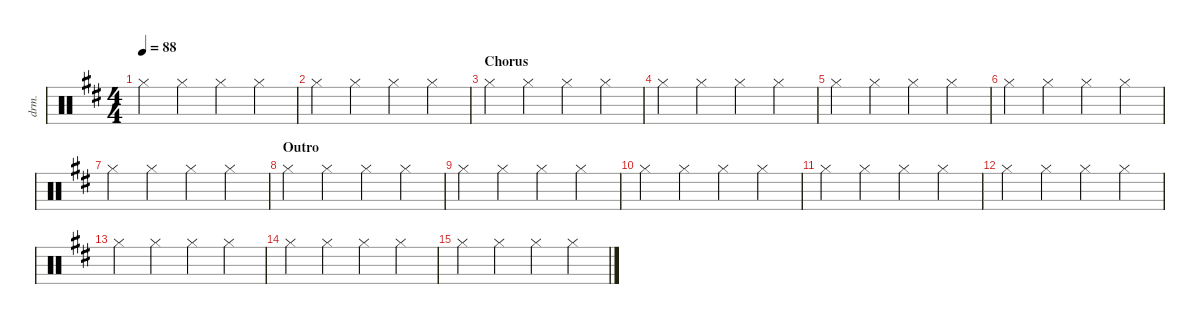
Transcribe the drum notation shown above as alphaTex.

\defaultSystemsLayout 4
\hideDynamics
\bracketExtendMode nobrackets
\otherSystemsTrackNameOrientation horizontal
\track ("Drumkit" "drm.") {instrument percussion}
\staff {score}
\articulation defaults
\ts (4 4)
\tempo 88
\clef neutral
\ks d "Hi-Hat (closed)"{acc forcenatural}.4{dy mf beam Down} "Hi-Hat (closed)"{acc forcenatural}.4{beam Down} "Hi-Hat (closed)"{acc forcenatural}.4{beam Down} "Hi-Hat (closed)"{acc forcenatural}.4{beam Down}
|
"Hi-Hat (closed)"{acc forcenatural}.4{beam Down} "Hi-Hat (closed)"{acc forcenatural}.4{beam Down} "Hi-Hat (closed)"{acc forcenatural}.4{beam Down} "Hi-Hat (closed)"{acc forcenatural}.4{beam Down} |
\section ("" "Chorus")
"Hi-Hat (closed)"{acc forcenatural}.4{beam Down} "Hi-Hat (closed)"{acc forcenatural}.4{beam Down} "Hi-Hat (closed)"{acc forcenatural}.4{beam Down} "Hi-Hat (closed)"{acc forcenatural}.4{beam Down} |
"Hi-Hat (closed)"{acc forcenatural}.4{beam Down} "Hi-Hat (closed)"{acc forcenatural}.4{beam Down} "Hi-Hat (closed)"{acc forcenatural}.4{beam Down} "Hi-Hat (closed)"{acc forcenatural}.4{beam Down} |
"Hi-Hat (closed)"{acc forcenatural}.4{beam Down} "Hi-Hat (closed)"{acc forcenatural}.4{beam Down} "Hi-Hat (closed)"{acc forcenatural}.4{beam Down} "Hi-Hat (closed)"{acc forcenatural}.4{beam Down} |
"Hi-Hat (closed)"{acc forcenatural}.4{beam Down} "Hi-Hat (closed)"{acc forcenatural}.4{beam Down} "Hi-Hat (closed)"{acc forcenatural}.4{beam Down} "Hi-Hat (closed)"{acc forcenatural}.4{beam Down} |
"Hi-Hat (closed)"{acc forcenatural}.4{beam Down} "Hi-Hat (closed)"{acc forcenatural}.4{beam Down} "Hi-Hat (closed)"{acc forcenatural}.4{beam Down} "Hi-Hat (closed)"{acc forcenatural}.4{beam Down} |
\section ("" "Outro")
"Hi-Hat (closed)"{acc forcenatural}.4{beam Down} "Hi-Hat (closed)"{acc forcenatural}.4{beam Down} "Hi-Hat (closed)"{acc forcenatural}.4{beam Down} "Hi-Hat (closed)"{acc forcenatural}.4{beam Down} |
"Hi-Hat (closed)"{acc forcenatural}.4{beam Down} "Hi-Hat (closed)"{acc forcenatural}.4{beam Down} "Hi-Hat (closed)"{acc forcenatural}.4{beam Down} "Hi-Hat (closed)"{acc forcenatural}.4{beam Down} |
"Hi-Hat (closed)"{acc forcenatural}.4{beam Down} "Hi-Hat (closed)"{acc forcenatural}.4{beam Down} "Hi-Hat (closed)"{acc forcenatural}.4{beam Down} "Hi-Hat (closed)"{acc forcenatural}.4{beam Down} |
"Hi-Hat (closed)"{acc forcenatural}.4{beam Down} "Hi-Hat (closed)"{acc forcenatural}.4{beam Down} "Hi-Hat (closed)"{acc forcenatural}.4{beam Down} "Hi-Hat (closed)"{acc forcenatural}.4{beam Down} |
"Hi-Hat (closed)"{acc forcenatural}.4{beam Down} "Hi-Hat (closed)"{acc forcenatural}.4{beam Down} "Hi-Hat (closed)"{acc forcenatural}.4{beam Down} "Hi-Hat (closed)"{acc forcenatural}.4{beam Down} |
"Hi-Hat (closed)"{acc forcenatural}.4{beam Down} "Hi-Hat (closed)"{acc forcenatural}.4{beam Down} "Hi-Hat (closed)"{acc forcenatural}.4{beam Down} "Hi-Hat (closed)"{acc forcenatural}.4{beam Down} |
"Hi-Hat (closed)"{acc forcenatural}.4{beam Down} "Hi-Hat (closed)"{acc forcenatural}.4{beam Down} "Hi-Hat (closed)"{acc forcenatural}.4{beam Down} "Hi-Hat (closed)"{acc forcenatural}.4{beam Down} |
"Hi-Hat (closed)"{acc forcenatural}.4{beam Down} "Hi-Hat (closed)"{acc forcenatural}.4{beam Down} "Hi-Hat (closed)"{acc forcenatural}.4{beam Down} "Hi-Hat (closed)"{acc forcenatural}.4{beam Down}
